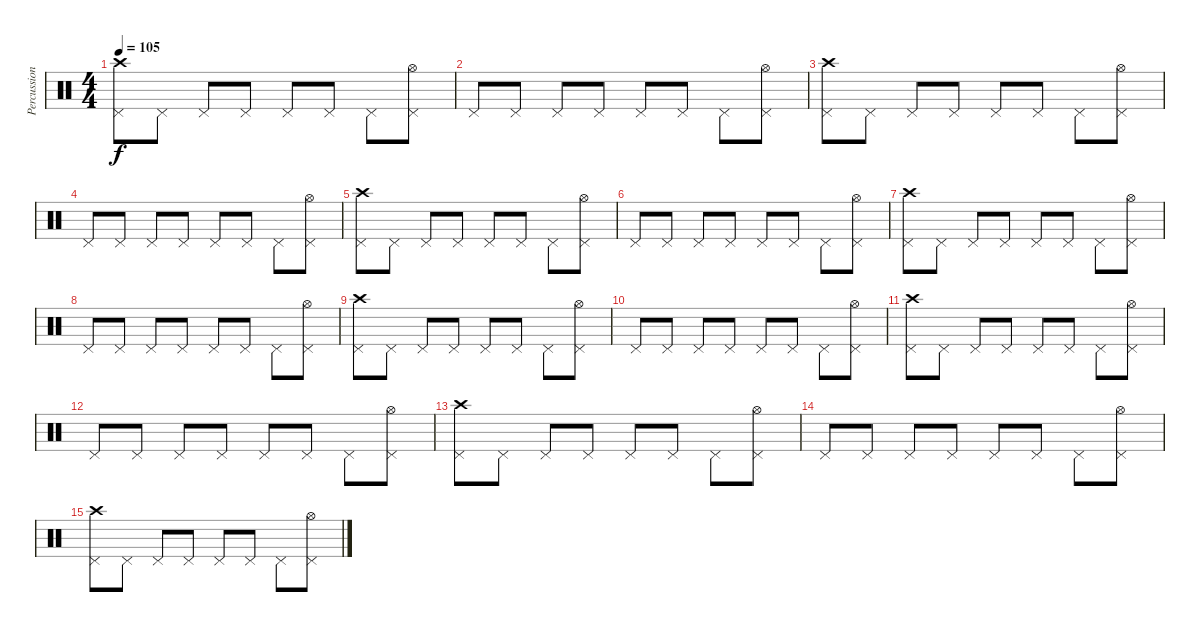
\track ("Percussion" "Percussion") {instrument percussion}
\staff {score}
\articulation defaults
\ts (4 4)
\tempo 105
\clef neutral
\ks c
("Pedal Hi-Hat (hit)" "Crash high (hit)").8{dy f} "Pedal Hi-Hat (hit)".8 "Pedal Hi-Hat (hit)".8 "Pedal Hi-Hat (hit)".8 "Pedal Hi-Hat (hit)".8 "Pedal Hi-Hat (hit)".8 "Pedal Hi-Hat (hit)".8 ("Pedal Hi-Hat (hit)" "Hi-Hat (open)").8 |
"Pedal Hi-Hat (hit)".8 "Pedal Hi-Hat (hit)".8 "Pedal Hi-Hat (hit)".8 "Pedal Hi-Hat (hit)".8 "Pedal Hi-Hat (hit)".8 "Pedal Hi-Hat (hit)".8 "Pedal Hi-Hat (hit)".8 ("Pedal Hi-Hat (hit)" "Hi-Hat (open)").8 |
("Pedal Hi-Hat (hit)" "Crash high (hit)").8 "Pedal Hi-Hat (hit)".8 "Pedal Hi-Hat (hit)".8 "Pedal Hi-Hat (hit)".8 "Pedal Hi-Hat (hit)".8 "Pedal Hi-Hat (hit)".8 "Pedal Hi-Hat (hit)".8 ("Pedal Hi-Hat (hit)" "Hi-Hat (open)").8 |
"Pedal Hi-Hat (hit)".8 "Pedal Hi-Hat (hit)".8 "Pedal Hi-Hat (hit)".8 "Pedal Hi-Hat (hit)".8 "Pedal Hi-Hat (hit)".8 "Pedal Hi-Hat (hit)".8 "Pedal Hi-Hat (hit)".8 ("Pedal Hi-Hat (hit)" "Hi-Hat (open)").8 |
("Pedal Hi-Hat (hit)" "Crash high (hit)").8 "Pedal Hi-Hat (hit)".8 "Pedal Hi-Hat (hit)".8 "Pedal Hi-Hat (hit)".8 "Pedal Hi-Hat (hit)".8 "Pedal Hi-Hat (hit)".8 "Pedal Hi-Hat (hit)".8 ("Pedal Hi-Hat (hit)" "Hi-Hat (open)").8 |
"Pedal Hi-Hat (hit)".8 "Pedal Hi-Hat (hit)".8 "Pedal Hi-Hat (hit)".8 "Pedal Hi-Hat (hit)".8 "Pedal Hi-Hat (hit)".8 "Pedal Hi-Hat (hit)".8 "Pedal Hi-Hat (hit)".8 ("Pedal Hi-Hat (hit)" "Hi-Hat (open)").8 |
("Pedal Hi-Hat (hit)" "Crash high (hit)").8 "Pedal Hi-Hat (hit)".8 "Pedal Hi-Hat (hit)".8 "Pedal Hi-Hat (hit)".8 "Pedal Hi-Hat (hit)".8 "Pedal Hi-Hat (hit)".8 "Pedal Hi-Hat (hit)".8 ("Pedal Hi-Hat (hit)" "Hi-Hat (open)").8 |
"Pedal Hi-Hat (hit)".8 "Pedal Hi-Hat (hit)".8 "Pedal Hi-Hat (hit)".8 "Pedal Hi-Hat (hit)".8 "Pedal Hi-Hat (hit)".8 "Pedal Hi-Hat (hit)".8 "Pedal Hi-Hat (hit)".8 ("Pedal Hi-Hat (hit)" "Hi-Hat (open)").8 |
("Pedal Hi-Hat (hit)" "Crash high (hit)").8 "Pedal Hi-Hat (hit)".8 "Pedal Hi-Hat (hit)".8 "Pedal Hi-Hat (hit)".8 "Pedal Hi-Hat (hit)".8 "Pedal Hi-Hat (hit)".8 "Pedal Hi-Hat (hit)".8 ("Pedal Hi-Hat (hit)" "Hi-Hat (open)").8 |
"Pedal Hi-Hat (hit)".8 "Pedal Hi-Hat (hit)".8 "Pedal Hi-Hat (hit)".8 "Pedal Hi-Hat (hit)".8 "Pedal Hi-Hat (hit)".8 "Pedal Hi-Hat (hit)".8 "Pedal Hi-Hat (hit)".8 ("Pedal Hi-Hat (hit)" "Hi-Hat (open)").8 |
("Pedal Hi-Hat (hit)" "Crash high (hit)").8 "Pedal Hi-Hat (hit)".8 "Pedal Hi-Hat (hit)".8 "Pedal Hi-Hat (hit)".8 "Pedal Hi-Hat (hit)".8 "Pedal Hi-Hat (hit)".8 "Pedal Hi-Hat (hit)".8 ("Pedal Hi-Hat (hit)" "Hi-Hat (open)").8 |
"Pedal Hi-Hat (hit)".8 "Pedal Hi-Hat (hit)".8 "Pedal Hi-Hat (hit)".8 "Pedal Hi-Hat (hit)".8 "Pedal Hi-Hat (hit)".8 "Pedal Hi-Hat (hit)".8 "Pedal Hi-Hat (hit)".8 ("Pedal Hi-Hat (hit)" "Hi-Hat (open)").8 |
("Pedal Hi-Hat (hit)" "Crash high (hit)").8 "Pedal Hi-Hat (hit)".8 "Pedal Hi-Hat (hit)".8 "Pedal Hi-Hat (hit)".8 "Pedal Hi-Hat (hit)".8 "Pedal Hi-Hat (hit)".8 "Pedal Hi-Hat (hit)".8 ("Pedal Hi-Hat (hit)" "Hi-Hat (open)").8 |
"Pedal Hi-Hat (hit)".8 "Pedal Hi-Hat (hit)".8 "Pedal Hi-Hat (hit)".8 "Pedal Hi-Hat (hit)".8 "Pedal Hi-Hat (hit)".8 "Pedal Hi-Hat (hit)".8 "Pedal Hi-Hat (hit)".8 ("Pedal Hi-Hat (hit)" "Hi-Hat (open)").8 |
("Pedal Hi-Hat (hit)" "Crash high (hit)").8 "Pedal Hi-Hat (hit)".8 "Pedal Hi-Hat (hit)".8 "Pedal Hi-Hat (hit)".8 "Pedal Hi-Hat (hit)".8 "Pedal Hi-Hat (hit)".8 "Pedal Hi-Hat (hit)".8 ("Pedal Hi-Hat (hit)" "Hi-Hat (open)").8
